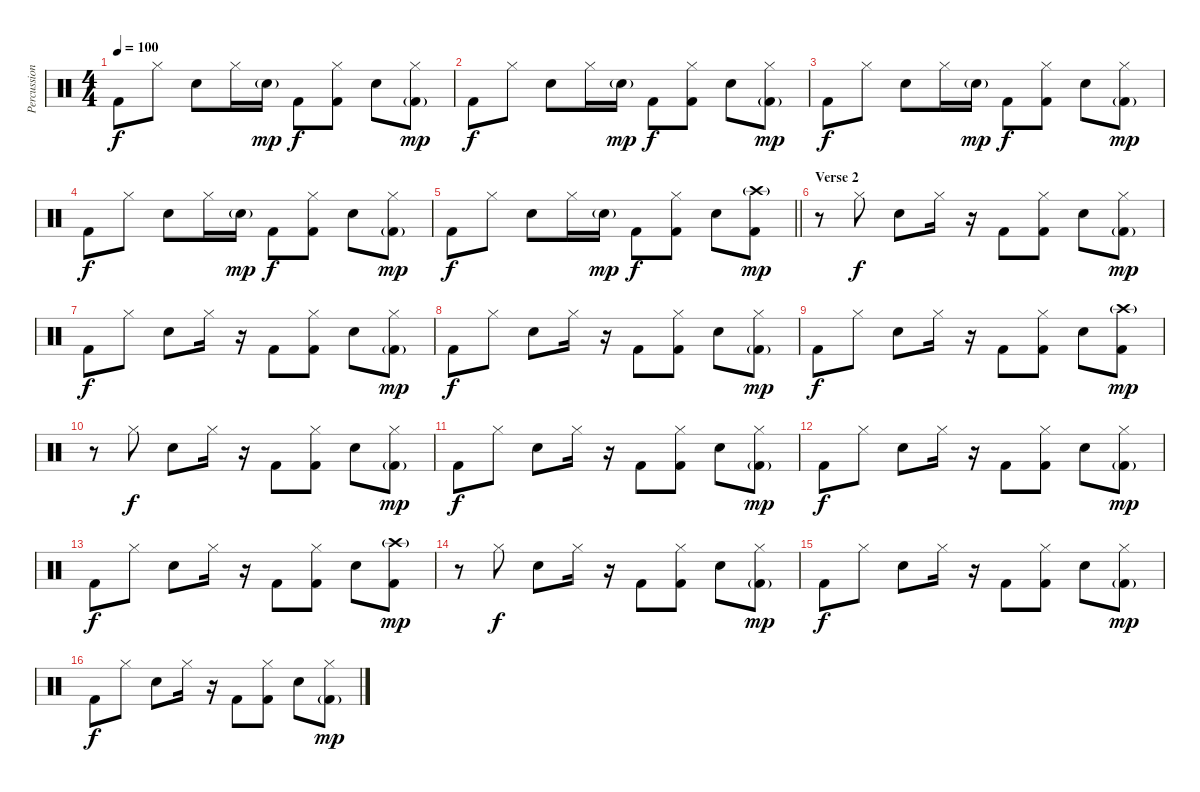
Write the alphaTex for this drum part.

\track ("Percussion" "Percussion") {instrument percussion}
\staff {score}
\articulation defaults
\ts (4 4)
\tempo 100
\clef neutral
\ks c "Kick (hit) 2".8{dy f} "Hi-Hat (closed)".8 "Snare (hit) 2".8 "Hi-Hat (closed)".16 "Snare (hit) 2"{g}.16{dy mp} "Kick (hit) 2".8{dy f}
("Hi-Hat (closed)" "Kick (hit) 2").8 "Snare (hit) 2".8 ("Hi-Hat (closed)" "Kick (hit) 2"{g}).8{dy mp} |
"Kick (hit) 2".8{dy f} "Hi-Hat (closed)".8 "Snare (hit) 2".8 "Hi-Hat (closed)".16 "Snare (hit) 2"{g}.16{dy mp} "Kick (hit) 2".8{dy f} ("Hi-Hat (closed)" "Kick (hit) 2").8 "Snare (hit) 2".8 ("Hi-Hat (closed)" "Kick (hit) 2"{g}).8{dy mp} |
"Kick (hit) 2".8{dy f} "Hi-Hat (closed)".8 "Snare (hit) 2".8 "Hi-Hat (closed)".16 "Snare (hit) 2"{g}.16{dy mp} "Kick (hit) 2".8{dy f} ("Hi-Hat (closed)" "Kick (hit) 2").8 "Snare (hit) 2".8 ("Hi-Hat (closed)" "Kick (hit) 2"{g}).8{dy mp} |
"Kick (hit) 2".8{dy f} "Hi-Hat (closed)".8 "Snare (hit) 2".8 "Hi-Hat (closed)".16 "Snare (hit) 2"{g}.16{dy mp} "Kick (hit) 2".8{dy f} ("Hi-Hat (closed)" "Kick (hit) 2").8 "Snare (hit) 2".8 ("Hi-Hat (closed)" "Kick (hit) 2"{g}).8{dy mp} |
\barLineRight lightlight "Kick (hit) 2".8{dy f} "Hi-Hat (closed)".8 "Snare (hit) 2".8 "Hi-Hat (closed)".16 "Snare (hit) 2"{g}.16{dy mp} "Kick (hit) 2".8{dy f}
("Hi-Hat (closed)" "Kick (hit) 2").8 "Snare (hit) 2".8 ("Crash high (hit)"{g} "Kick (hit) 2").8{dy mp} |
\section ("" "Verse 2")
r.8 "Hi-Hat (closed)".8{dy f} "Snare (hit) 2".8 "Hi-Hat (closed)".16 r.16 "Kick (hit) 2".8 ("Hi-Hat (closed)" "Kick (hit) 2").8 "Snare (hit) 2".8 ("Hi-Hat (closed)" "Kick (hit) 2"{g}).8{dy mp} |
"Kick (hit) 2".8{dy f} "Hi-Hat (closed)".8 "Snare (hit) 2".8 "Hi-Hat (closed)".16 r.16 "Kick (hit) 2".8 ("Hi-Hat (closed)" "Kick (hit) 2").8 "Snare (hit) 2".8 ("Hi-Hat (closed)" "Kick (hit) 2"{g}).8{dy mp} |
"Kick (hit) 2".8{dy f} "Hi-Hat (closed)".8 "Snare (hit) 2".8 "Hi-Hat (closed)".16 r.16 "Kick (hit) 2".8 ("Hi-Hat (closed)" "Kick (hit) 2").8 "Snare (hit) 2".8 ("Hi-Hat (closed)" "Kick (hit) 2"{g}).8{dy mp} |
"Kick (hit) 2".8{dy f} "Hi-Hat (closed)".8 "Snare (hit) 2".8 "Hi-Hat (closed)".16 r.16 "Kick (hit) 2".8 ("Hi-Hat (closed)" "Kick (hit) 2").8 "Snare (hit) 2".8 ("Crash high (hit)"{g} "Kick (hit) 2").8{dy mp} |
r.8 "Hi-Hat (closed)".8{dy f} "Snare (hit) 2".8 "Hi-Hat (closed)".16 r.16 "Kick (hit) 2".8 ("Hi-Hat (closed)" "Kick (hit) 2").8 "Snare (hit) 2".8 ("Hi-Hat (closed)" "Kick (hit) 2"{g}).8{dy mp} |
"Kick (hit) 2".8{dy f} "Hi-Hat (closed)".8 "Snare (hit) 2".8 "Hi-Hat (closed)".16 r.16 "Kick (hit) 2".8 ("Hi-Hat (closed)" "Kick (hit) 2").8 "Snare (hit) 2".8 ("Hi-Hat (closed)" "Kick (hit) 2"{g}).8{dy mp} |
"Kick (hit) 2".8{dy f} "Hi-Hat (closed)".8 "Snare (hit) 2".8 "Hi-Hat (closed)".16 r.16 "Kick (hit) 2".8 ("Hi-Hat (closed)" "Kick (hit) 2").8 "Snare (hit) 2".8 ("Hi-Hat (closed)" "Kick (hit) 2"{g}).8{dy mp} |
"Kick (hit) 2".8{dy f} "Hi-Hat (closed)".8 "Snare (hit) 2".8 "Hi-Hat (closed)".16 r.16 "Kick (hit) 2".8 ("Hi-Hat (closed)" "Kick (hit) 2").8 "Snare (hit) 2".8 ("Crash high (hit)"{g} "Kick (hit) 2").8{dy mp} |
r.8 "Hi-Hat (closed)".8{dy f} "Snare (hit) 2".8 "Hi-Hat (closed)".16 r.16 "Kick (hit) 2".8 ("Hi-Hat (closed)" "Kick (hit) 2").8 "Snare (hit) 2".8 ("Hi-Hat (closed)" "Kick (hit) 2"{g}).8{dy mp} |
"Kick (hit) 2".8{dy f} "Hi-Hat (closed)".8 "Snare (hit) 2".8 "Hi-Hat (closed)".16 r.16 "Kick (hit) 2".8 ("Hi-Hat (closed)" "Kick (hit) 2").8 "Snare (hit) 2".8 ("Hi-Hat (closed)" "Kick (hit) 2"{g}).8{dy mp} |
"Kick (hit) 2".8{dy f} "Hi-Hat (closed)".8 "Snare (hit) 2".8 "Hi-Hat (closed)".16 r.16 "Kick (hit) 2".8 ("Hi-Hat (closed)" "Kick (hit) 2").8 "Snare (hit) 2".8 ("Hi-Hat (closed)" "Kick (hit) 2"{g}).8{dy mp}
